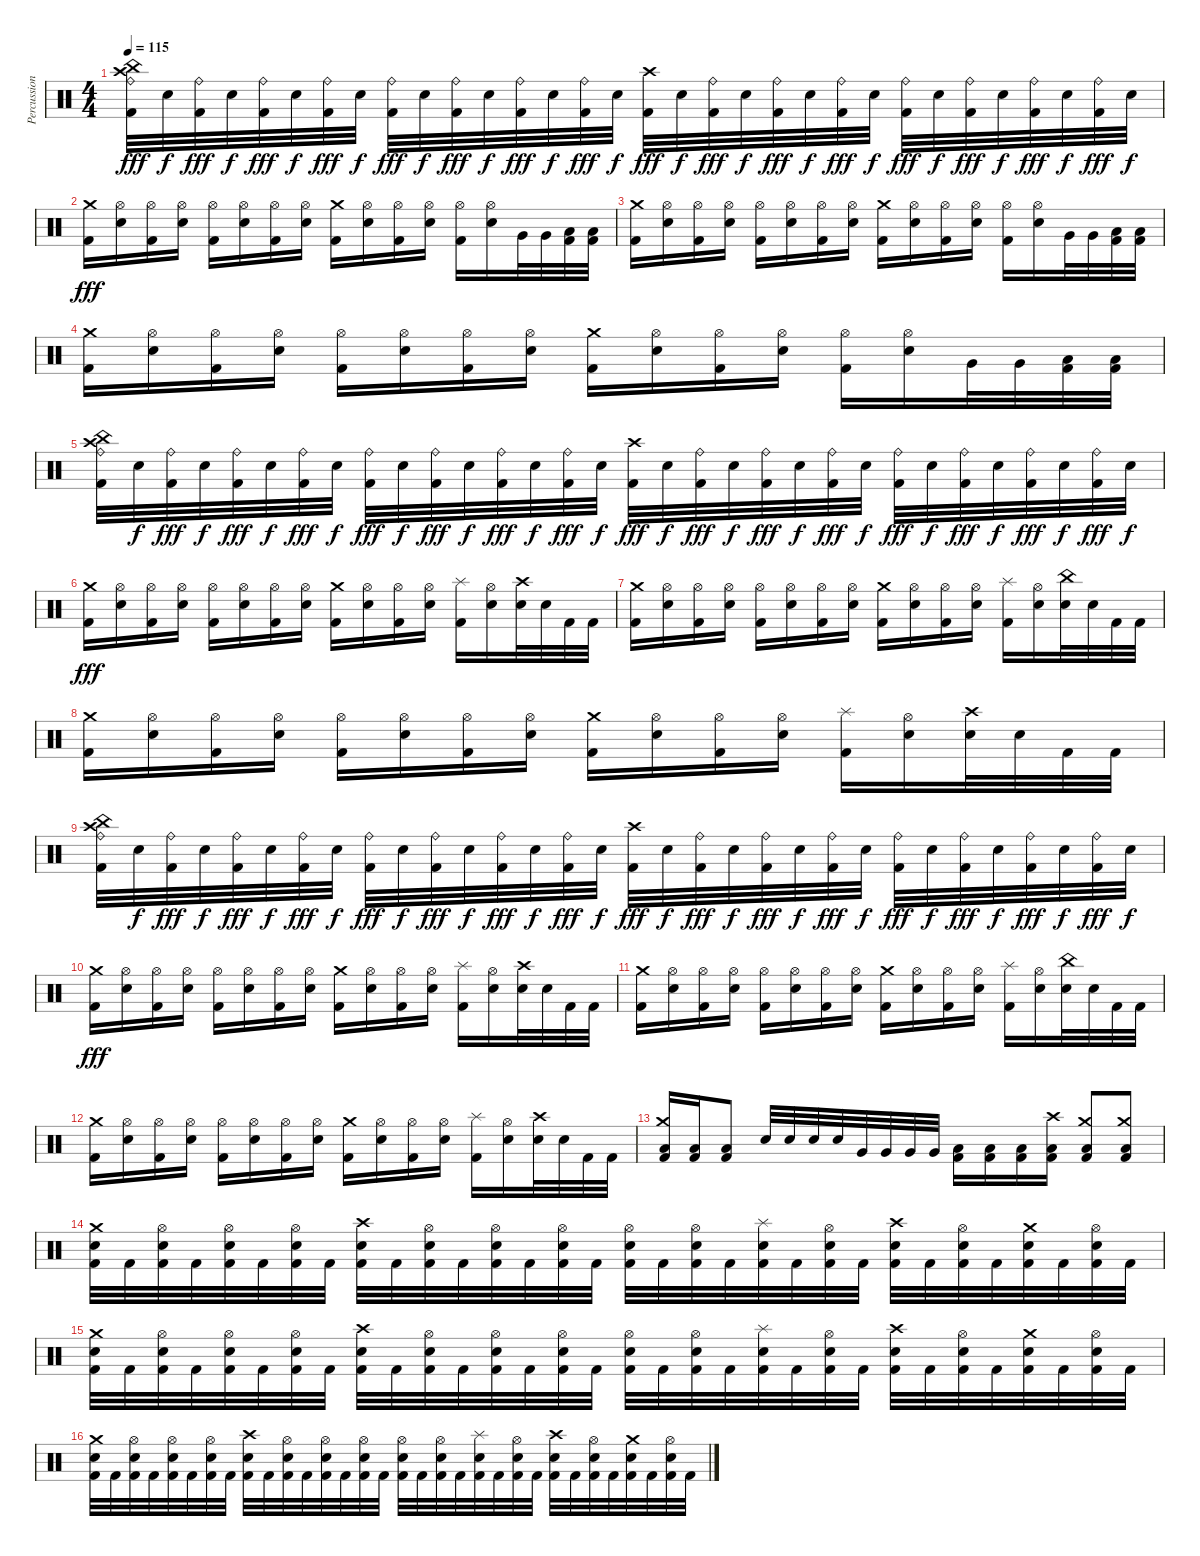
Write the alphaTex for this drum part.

\track ("Percussion" "Percussion") {instrument percussion}
\staff
\articulation defaults
\ts (4 4)
\tempo 115
\clef neutral
\ks c
("China (hit)" "Crash high (hit)" "Ride (bell)" "Kick (hit) 2").32{dy fff} "Snare (hit) 2".32{dy f} ("Ride (bell)" "Kick (hit) 2").32{dy fff} "Snare (hit) 2".32{dy f} ("Ride (bell)" "Kick (hit) 2").32{dy fff} "Snare (hit) 2".32{dy f} ("Ride (bell)" "Kick (hit) 2").32{dy fff} "Snare (hit) 2".32{dy f} ("Ride (bell)" "Kick (hit) 2").32{dy fff} "Snare (hit) 2".32{dy f} ("Ride (bell)" "Kick (hit) 2").32{dy fff} "Snare (hit) 2".32{dy f} ("Ride (bell)" "Kick (hit) 2").32{dy fff} "Snare (hit) 2".32{dy f} ("Ride (bell)" "Kick (hit) 2").32{dy fff} "Snare (hit) 2".32{dy f} ("Crash high (hit)" "Kick (hit) 2").32{dy fff} "Snare (hit) 2".32{dy f} ("Ride (bell)" "Kick (hit) 2").32{dy fff} "Snare (hit) 2".32{dy f} ("Ride (bell)" "Kick (hit) 2").32{dy fff} "Snare (hit) 2".32{dy f} ("Ride (bell)" "Kick (hit) 2").32{dy fff} "Snare (hit) 2".32{dy f} ("Ride (bell)" "Kick (hit) 2").32{dy fff} "Snare (hit) 2".32{dy f} ("Ride (bell)" "Kick (hit) 2").32{dy fff} "Snare (hit) 2".32{dy f} ("Ride (bell)" "Kick (hit) 2").32{dy fff} "Snare (hit) 2".32{dy f} ("Ride (bell)" "Kick (hit) 2").32{dy fff} "Snare (hit) 2".32{dy f} |
("Crash medium (hit)" "Kick (hit) 2").16{dy fff} ("Hi-Hat (open)" "Snare (hit) 2").16 ("Hi-Hat (open)" "Kick (hit) 2").16 ("Hi-Hat (open)" "Snare (hit) 2").16 ("Hi-Hat (open)" "Kick (hit) 2").16 ("Hi-Hat (open)" "Snare (hit) 2").16 ("Hi-Hat (open)" "Kick (hit) 2").16 ("Hi-Hat (open)" "Snare (hit) 2").16 ("Crash medium (hit)" "Kick (hit) 2").16 ("Hi-Hat (open)" "Snare (hit) 2").16 ("Hi-Hat (open)" "Kick (hit) 2").16 ("Hi-Hat (open)" "Snare (hit) 2").16 ("Hi-Hat (open)" "Kick (hit) 2").16 ("Hi-Hat (open)" "Snare (hit) 2").16 "Very Low Tom (hit)".32 "Very Low Tom (hit)".32 ("Low Floor Tom (hit)" "Kick (hit) 2").32 ("Low Floor Tom (hit)" "Kick (hit) 2").32 |
("Crash medium (hit)" "Kick (hit) 2").16 ("Hi-Hat (open)" "Snare (hit) 2").16 ("Hi-Hat (open)" "Kick (hit) 2").16 ("Hi-Hat (open)" "Snare (hit) 2").16 ("Hi-Hat (open)" "Kick (hit) 2").16 ("Hi-Hat (open)" "Snare (hit) 2").16 ("Hi-Hat (open)" "Kick (hit) 2").16 ("Hi-Hat (open)" "Snare (hit) 2").16 ("Crash medium (hit)" "Kick (hit) 2").16 ("Hi-Hat (open)" "Snare (hit) 2").16 ("Hi-Hat (open)" "Kick (hit) 2").16 ("Hi-Hat (open)" "Snare (hit) 2").16 ("Hi-Hat (open)" "Kick (hit) 2").16 ("Hi-Hat (open)" "Snare (hit) 2").16 "Very Low Tom (hit)".32 "Very Low Tom (hit)".32 ("Low Floor Tom (hit)" "Kick (hit) 2").32 ("Low Floor Tom (hit)" "Kick (hit) 2").32 |
("Crash medium (hit)" "Kick (hit) 2").16 ("Hi-Hat (open)" "Snare (hit) 2").16 ("Hi-Hat (open)" "Kick (hit) 2").16 ("Hi-Hat (open)" "Snare (hit) 2").16 ("Hi-Hat (open)" "Kick (hit) 2").16 ("Hi-Hat (open)" "Snare (hit) 2").16 ("Hi-Hat (open)" "Kick (hit) 2").16 ("Hi-Hat (open)" "Snare (hit) 2").16 ("Crash medium (hit)" "Kick (hit) 2").16 ("Hi-Hat (open)" "Snare (hit) 2").16 ("Hi-Hat (open)" "Kick (hit) 2").16 ("Hi-Hat (open)" "Snare (hit) 2").16 ("Hi-Hat (open)" "Kick (hit) 2").16 ("Hi-Hat (open)" "Snare (hit) 2").16 "Very Low Tom (hit)".32 "Very Low Tom (hit)".32 ("Low Floor Tom (hit)" "Kick (hit) 2").32 ("Low Floor Tom (hit)" "Kick (hit) 2").32 |
("China (hit)" "Crash high (hit)" "Ride (bell)" "Kick (hit) 2").32 "Snare (hit) 2".32{dy f} ("Ride (bell)" "Kick (hit) 2").32{dy fff} "Snare (hit) 2".32{dy f} ("Ride (bell)" "Kick (hit) 2").32{dy fff} "Snare (hit) 2".32{dy f} ("Ride (bell)" "Kick (hit) 2").32{dy fff} "Snare (hit) 2".32{dy f} ("Ride (bell)" "Kick (hit) 2").32{dy fff} "Snare (hit) 2".32{dy f} ("Ride (bell)" "Kick (hit) 2").32{dy fff} "Snare (hit) 2".32{dy f} ("Ride (bell)" "Kick (hit) 2").32{dy fff} "Snare (hit) 2".32{dy f} ("Ride (bell)" "Kick (hit) 2").32{dy fff} "Snare (hit) 2".32{dy f} ("Crash high (hit)" "Kick (hit) 2").32{dy fff} "Snare (hit) 2".32{dy f} ("Ride (bell)" "Kick (hit) 2").32{dy fff} "Snare (hit) 2".32{dy f} ("Ride (bell)" "Kick (hit) 2").32{dy fff} "Snare (hit) 2".32{dy f} ("Ride (bell)" "Kick (hit) 2").32{dy fff} "Snare (hit) 2".32{dy f} ("Ride (bell)" "Kick (hit) 2").32{dy fff} "Snare (hit) 2".32{dy f} ("Ride (bell)" "Kick (hit) 2").32{dy fff} "Snare (hit) 2".32{dy f} ("Ride (bell)" "Kick (hit) 2").32{dy fff} "Snare (hit) 2".32{dy f} ("Ride (bell)" "Kick (hit) 2").32{dy fff} "Snare (hit) 2".32{dy f} |
("Crash medium (hit)" "Kick (hit) 2").16{dy fff} ("Hi-Hat (open)" "Snare (hit) 2").16 ("Hi-Hat (open)" "Kick (hit) 2").16 ("Hi-Hat (open)" "Snare (hit) 2").16 ("Hi-Hat (open)" "Kick (hit) 2").16 ("Hi-Hat (open)" "Snare (hit) 2").16 ("Hi-Hat (open)" "Kick (hit) 2").16 ("Hi-Hat (open)" "Snare (hit) 2").16 ("Crash medium (hit)" "Kick (hit) 2").16 ("Hi-Hat (open)" "Snare (hit) 2").16 ("Hi-Hat (open)" "Kick (hit) 2").16 ("Hi-Hat (open)" "Snare (hit) 2").16 ("Splash (hit)" "Kick (hit) 2").16 ("Hi-Hat (open)" "Snare (hit) 2").16 ("Crash high (hit)" "Snare (hit) 2").32 "Snare (hit) 2".32 "Kick (hit) 2".32 "Kick (hit) 2".32 |
("Crash medium (hit)" "Kick (hit) 2").16 ("Hi-Hat (open)" "Snare (hit) 2").16 ("Hi-Hat (open)" "Kick (hit) 2").16 ("Hi-Hat (open)" "Snare (hit) 2").16 ("Hi-Hat (open)" "Kick (hit) 2").16 ("Hi-Hat (open)" "Snare (hit) 2").16 ("Hi-Hat (open)" "Kick (hit) 2").16 ("Hi-Hat (open)" "Snare (hit) 2").16 ("Crash medium (hit)" "Kick (hit) 2").16 ("Hi-Hat (open)" "Snare (hit) 2").16 ("Hi-Hat (open)" "Kick (hit) 2").16 ("Hi-Hat (open)" "Snare (hit) 2").16 ("Splash (hit)" "Kick (hit) 2").16 ("Hi-Hat (open)" "Snare (hit) 2").16 ("China (hit)" "Snare (hit) 2").32 "Snare (hit) 2".32 "Kick (hit) 2".32 "Kick (hit) 2".32 |
("Crash medium (hit)" "Kick (hit) 2").16 ("Hi-Hat (open)" "Snare (hit) 2").16 ("Hi-Hat (open)" "Kick (hit) 2").16 ("Hi-Hat (open)" "Snare (hit) 2").16 ("Hi-Hat (open)" "Kick (hit) 2").16 ("Hi-Hat (open)" "Snare (hit) 2").16 ("Hi-Hat (open)" "Kick (hit) 2").16 ("Hi-Hat (open)" "Snare (hit) 2").16 ("Crash medium (hit)" "Kick (hit) 2").16 ("Hi-Hat (open)" "Snare (hit) 2").16 ("Hi-Hat (open)" "Kick (hit) 2").16 ("Hi-Hat (open)" "Snare (hit) 2").16 ("Splash (hit)" "Kick (hit) 2").16 ("Hi-Hat (open)" "Snare (hit) 2").16 ("Crash high (hit)" "Snare (hit) 2").32 "Snare (hit) 2".32 "Kick (hit) 2".32 "Kick (hit) 2".32 |
("China (hit)" "Crash high (hit)" "Ride (bell)" "Kick (hit) 2").32 "Snare (hit) 2".32{dy f} ("Ride (bell)" "Kick (hit) 2").32{dy fff} "Snare (hit) 2".32{dy f} ("Ride (bell)" "Kick (hit) 2").32{dy fff} "Snare (hit) 2".32{dy f} ("Ride (bell)" "Kick (hit) 2").32{dy fff} "Snare (hit) 2".32{dy f} ("Ride (bell)" "Kick (hit) 2").32{dy fff} "Snare (hit) 2".32{dy f} ("Ride (bell)" "Kick (hit) 2").32{dy fff} "Snare (hit) 2".32{dy f} ("Ride (bell)" "Kick (hit) 2").32{dy fff} "Snare (hit) 2".32{dy f} ("Ride (bell)" "Kick (hit) 2").32{dy fff} "Snare (hit) 2".32{dy f} ("Crash high (hit)" "Kick (hit) 2").32{dy fff} "Snare (hit) 2".32{dy f} ("Ride (bell)" "Kick (hit) 2").32{dy fff} "Snare (hit) 2".32{dy f} ("Ride (bell)" "Kick (hit) 2").32{dy fff} "Snare (hit) 2".32{dy f} ("Ride (bell)" "Kick (hit) 2").32{dy fff} "Snare (hit) 2".32{dy f} ("Ride (bell)" "Kick (hit) 2").32{dy fff} "Snare (hit) 2".32{dy f} ("Ride (bell)" "Kick (hit) 2").32{dy fff} "Snare (hit) 2".32{dy f} ("Ride (bell)" "Kick (hit) 2").32{dy fff} "Snare (hit) 2".32{dy f} ("Ride (bell)" "Kick (hit) 2").32{dy fff} "Snare (hit) 2".32{dy f} |
("Crash medium (hit)" "Kick (hit) 2").16{dy fff} ("Hi-Hat (open)" "Snare (hit) 2").16 ("Hi-Hat (open)" "Kick (hit) 2").16 ("Hi-Hat (open)" "Snare (hit) 2").16 ("Hi-Hat (open)" "Kick (hit) 2").16 ("Hi-Hat (open)" "Snare (hit) 2").16 ("Hi-Hat (open)" "Kick (hit) 2").16 ("Hi-Hat (open)" "Snare (hit) 2").16 ("Crash medium (hit)" "Kick (hit) 2").16 ("Hi-Hat (open)" "Snare (hit) 2").16 ("Hi-Hat (open)" "Kick (hit) 2").16 ("Hi-Hat (open)" "Snare (hit) 2").16 ("Splash (hit)" "Kick (hit) 2").16 ("Hi-Hat (open)" "Snare (hit) 2").16 ("Crash high (hit)" "Snare (hit) 2").32 "Snare (hit) 2".32 "Kick (hit) 2".32 "Kick (hit) 2".32 |
("Crash medium (hit)" "Kick (hit) 2").16 ("Hi-Hat (open)" "Snare (hit) 2").16 ("Hi-Hat (open)" "Kick (hit) 2").16 ("Hi-Hat (open)" "Snare (hit) 2").16 ("Hi-Hat (open)" "Kick (hit) 2").16 ("Hi-Hat (open)" "Snare (hit) 2").16 ("Hi-Hat (open)" "Kick (hit) 2").16 ("Hi-Hat (open)" "Snare (hit) 2").16 ("Crash medium (hit)" "Kick (hit) 2").16 ("Hi-Hat (open)" "Snare (hit) 2").16 ("Hi-Hat (open)" "Kick (hit) 2").16 ("Hi-Hat (open)" "Snare (hit) 2").16 ("Splash (hit)" "Kick (hit) 2").16 ("Hi-Hat (open)" "Snare (hit) 2").16 ("China (hit)" "Snare (hit) 2").32 "Snare (hit) 2".32 "Kick (hit) 2".32 "Kick (hit) 2".32 |
("Crash medium (hit)" "Kick (hit) 2").16 ("Hi-Hat (open)" "Snare (hit) 2").16 ("Hi-Hat (open)" "Kick (hit) 2").16 ("Hi-Hat (open)" "Snare (hit) 2").16 ("Hi-Hat (open)" "Kick (hit) 2").16 ("Hi-Hat (open)" "Snare (hit) 2").16 ("Hi-Hat (open)" "Kick (hit) 2").16 ("Hi-Hat (open)" "Snare (hit) 2").16 ("Crash medium (hit)" "Kick (hit) 2").16 ("Hi-Hat (open)" "Snare (hit) 2").16 ("Hi-Hat (open)" "Kick (hit) 2").16 ("Hi-Hat (open)" "Snare (hit) 2").16 ("Splash (hit)" "Kick (hit) 2").16 ("Hi-Hat (open)" "Snare (hit) 2").16 ("Crash high (hit)" "Snare (hit) 2").32 "Snare (hit) 2".32 "Kick (hit) 2".32 "Kick (hit) 2".32 |
("Crash medium (hit)" "Low Floor Tom (hit)" "Kick (hit) 2").16 ("Low Floor Tom (hit)" "Kick (hit) 2").16 ("Low Floor Tom (hit)" "Kick (hit) 2").8 "Snare (hit) 2".32 "Snare (hit) 2".32 "Snare (hit) 2".32 "Snare (hit) 2".32 "Very Low Tom (hit)".32 "Very Low Tom (hit)".32 "Very Low Tom (hit)".32 "Very Low Tom (hit)".32 ("Low Floor Tom (hit)" "Kick (hit) 2").16 ("Low Floor Tom (hit)" "Kick (hit) 2").16 ("Low Floor Tom (hit)" "Kick (hit) 2").16 ("Crash high (hit)" "Low Floor Tom (hit)" "Kick (hit) 2").16 ("Crash medium (hit)" "Low Floor Tom (hit)" "Kick (hit) 2").8 ("Crash medium (hit)" "Low Floor Tom (hit)" "Kick (hit) 2").8 |
("Crash medium (hit)" "Snare (hit) 2" "Kick (hit) 2").32 "Kick (hit) 2".32 ("Hi-Hat (open)" "Snare (hit) 2" "Kick (hit) 2").32 "Kick (hit) 2".32 ("Hi-Hat (open)" "Snare (hit) 2" "Kick (hit) 2").32 "Kick (hit) 2".32 ("Hi-Hat (open)" "Snare (hit) 2" "Kick (hit) 2").32 "Kick (hit) 2".32 ("Crash high (hit)" "Snare (hit) 2" "Kick (hit) 2").32 "Kick (hit) 2".32 ("Hi-Hat (open)" "Snare (hit) 2" "Kick (hit) 2").32 "Kick (hit) 2".32 ("Hi-Hat (open)" "Snare (hit) 2" "Kick (hit) 2").32 "Kick (hit) 2".32 ("Hi-Hat (open)" "Snare (hit) 2" "Kick (hit) 2").32 "Kick (hit) 2".32 ("Hi-Hat (open)" "Snare (hit) 2" "Kick (hit) 2").32 "Kick (hit) 2".32 ("Hi-Hat (open)" "Snare (hit) 2" "Kick (hit) 2").32 "Kick (hit) 2".32 ("Splash (hit)" "Snare (hit) 2" "Kick (hit) 2").32 "Kick (hit) 2".32 ("Hi-Hat (open)" "Snare (hit) 2" "Kick (hit) 2").32 "Kick (hit) 2".32 ("Crash high (hit)" "Snare (hit) 2" "Kick (hit) 2").32 "Kick (hit) 2".32 ("Hi-Hat (open)" "Snare (hit) 2" "Kick (hit) 2").32 "Kick (hit) 2".32 ("Crash medium (hit)" "Snare (hit) 2" "Kick (hit) 2").32 "Kick (hit) 2".32 ("Hi-Hat (open)" "Snare (hit) 2" "Kick (hit) 2").32 "Kick (hit) 2".32 |
("Crash medium (hit)" "Snare (hit) 2" "Kick (hit) 2").32 "Kick (hit) 2".32 ("Hi-Hat (open)" "Snare (hit) 2" "Kick (hit) 2").32 "Kick (hit) 2".32 ("Hi-Hat (open)" "Snare (hit) 2" "Kick (hit) 2").32 "Kick (hit) 2".32 ("Hi-Hat (open)" "Snare (hit) 2" "Kick (hit) 2").32 "Kick (hit) 2".32 ("Crash high (hit)" "Snare (hit) 2" "Kick (hit) 2").32 "Kick (hit) 2".32 ("Hi-Hat (open)" "Snare (hit) 2" "Kick (hit) 2").32 "Kick (hit) 2".32 ("Hi-Hat (open)" "Snare (hit) 2" "Kick (hit) 2").32 "Kick (hit) 2".32 ("Hi-Hat (open)" "Snare (hit) 2" "Kick (hit) 2").32 "Kick (hit) 2".32 ("Hi-Hat (open)" "Snare (hit) 2" "Kick (hit) 2").32 "Kick (hit) 2".32 ("Hi-Hat (open)" "Snare (hit) 2" "Kick (hit) 2").32 "Kick (hit) 2".32 ("Splash (hit)" "Snare (hit) 2" "Kick (hit) 2").32 "Kick (hit) 2".32 ("Hi-Hat (open)" "Snare (hit) 2" "Kick (hit) 2").32 "Kick (hit) 2".32 ("Crash high (hit)" "Snare (hit) 2" "Kick (hit) 2").32 "Kick (hit) 2".32 ("Hi-Hat (open)" "Snare (hit) 2" "Kick (hit) 2").32 "Kick (hit) 2".32 ("Crash medium (hit)" "Snare (hit) 2" "Kick (hit) 2").32 "Kick (hit) 2".32 ("Hi-Hat (open)" "Snare (hit) 2" "Kick (hit) 2").32 "Kick (hit) 2".32 |
("Crash medium (hit)" "Snare (hit) 2" "Kick (hit) 2").32 "Kick (hit) 2".32 ("Hi-Hat (open)" "Snare (hit) 2" "Kick (hit) 2").32 "Kick (hit) 2".32 ("Hi-Hat (open)" "Snare (hit) 2" "Kick (hit) 2").32 "Kick (hit) 2".32 ("Hi-Hat (open)" "Snare (hit) 2" "Kick (hit) 2").32 "Kick (hit) 2".32 ("Crash high (hit)" "Snare (hit) 2" "Kick (hit) 2").32 "Kick (hit) 2".32 ("Hi-Hat (open)" "Snare (hit) 2" "Kick (hit) 2").32 "Kick (hit) 2".32 ("Hi-Hat (open)" "Snare (hit) 2" "Kick (hit) 2").32 "Kick (hit) 2".32 ("Hi-Hat (open)" "Snare (hit) 2" "Kick (hit) 2").32 "Kick (hit) 2".32 ("Hi-Hat (open)" "Snare (hit) 2" "Kick (hit) 2").32 "Kick (hit) 2".32 ("Hi-Hat (open)" "Snare (hit) 2" "Kick (hit) 2").32 "Kick (hit) 2".32 ("Splash (hit)" "Snare (hit) 2" "Kick (hit) 2").32 "Kick (hit) 2".32 ("Hi-Hat (open)" "Snare (hit) 2" "Kick (hit) 2").32 "Kick (hit) 2".32 ("Crash high (hit)" "Snare (hit) 2" "Kick (hit) 2").32 "Kick (hit) 2".32 ("Hi-Hat (open)" "Snare (hit) 2" "Kick (hit) 2").32 "Kick (hit) 2".32 ("Crash medium (hit)" "Snare (hit) 2" "Kick (hit) 2").32 "Kick (hit) 2".32 ("Hi-Hat (open)" "Snare (hit) 2" "Kick (hit) 2").32 "Kick (hit) 2".32
